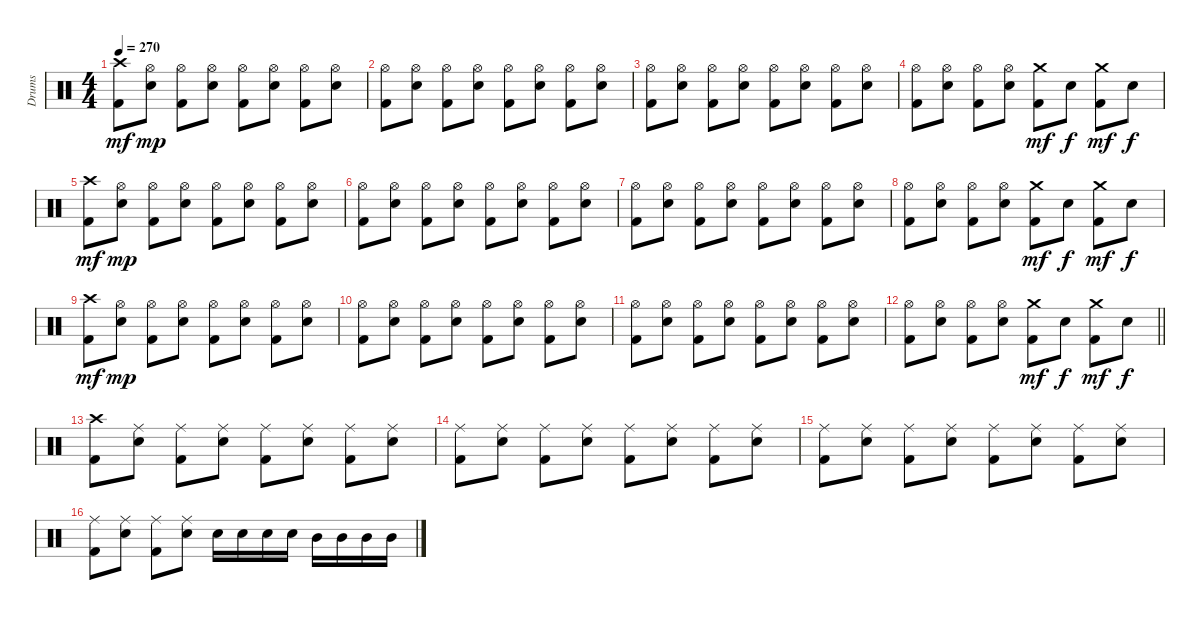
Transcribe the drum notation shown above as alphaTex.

\track ("Drums" "Drums") {instrument percussion}
\staff {score}
\articulation defaults
\ts (4 4)
\tempo 270
\clef neutral
\ks c
("Crash high (hit)" "Kick (hit) 2").8{dy mf} ("Hi-Hat (open)" "Snare (hit) 2").8{dy mp} ("Hi-Hat (open)" "Kick (hit) 2").8 ("Hi-Hat (open)" "Snare (hit) 2").8 ("Hi-Hat (open)" "Kick (hit) 2").8 ("Hi-Hat (open)" "Snare (hit) 2").8 ("Hi-Hat (open)" "Kick (hit) 2").8 ("Hi-Hat (open)" "Snare (hit) 2").8 |
("Hi-Hat (open)" "Kick (hit) 2").8 ("Hi-Hat (open)" "Snare (hit) 2").8 ("Hi-Hat (open)" "Kick (hit) 2").8 ("Hi-Hat (open)" "Snare (hit) 2").8 ("Hi-Hat (open)" "Kick (hit) 2").8 ("Hi-Hat (open)" "Snare (hit) 2").8 ("Hi-Hat (open)" "Kick (hit) 2").8 ("Hi-Hat (open)" "Snare (hit) 2").8 |
("Hi-Hat (open)" "Kick (hit) 2").8 ("Hi-Hat (open)" "Snare (hit) 2").8 ("Hi-Hat (open)" "Kick (hit) 2").8 ("Hi-Hat (open)" "Snare (hit) 2").8 ("Hi-Hat (open)" "Kick (hit) 2").8 ("Hi-Hat (open)" "Snare (hit) 2").8 ("Hi-Hat (open)" "Kick (hit) 2").8 ("Hi-Hat (open)" "Snare (hit) 2").8 |
("Hi-Hat (open)" "Kick (hit) 2").8 ("Hi-Hat (open)" "Snare (hit) 2").8 ("Hi-Hat (open)" "Kick (hit) 2").8 ("Hi-Hat (open)" "Snare (hit) 2").8 ("Crash medium (hit)" "Kick (hit) 2").8{dy mf} "Snare (hit) 2".8{dy f} ("Crash medium (hit)" "Kick (hit) 2").8{dy mf} "Snare (hit) 2".8{dy f} |
("Crash high (hit)" "Kick (hit) 2").8{dy mf} ("Hi-Hat (open)" "Snare (hit) 2").8{dy mp} ("Hi-Hat (open)" "Kick (hit) 2").8 ("Hi-Hat (open)" "Snare (hit) 2").8 ("Hi-Hat (open)" "Kick (hit) 2").8 ("Hi-Hat (open)" "Snare (hit) 2").8 ("Hi-Hat (open)" "Kick (hit) 2").8 ("Hi-Hat (open)" "Snare (hit) 2").8 |
("Hi-Hat (open)" "Kick (hit) 2").8 ("Hi-Hat (open)" "Snare (hit) 2").8 ("Hi-Hat (open)" "Kick (hit) 2").8 ("Hi-Hat (open)" "Snare (hit) 2").8 ("Hi-Hat (open)" "Kick (hit) 2").8 ("Hi-Hat (open)" "Snare (hit) 2").8 ("Hi-Hat (open)" "Kick (hit) 2").8 ("Hi-Hat (open)" "Snare (hit) 2").8 |
("Hi-Hat (open)" "Kick (hit) 2").8 ("Hi-Hat (open)" "Snare (hit) 2").8 ("Hi-Hat (open)" "Kick (hit) 2").8 ("Hi-Hat (open)" "Snare (hit) 2").8 ("Hi-Hat (open)" "Kick (hit) 2").8 ("Hi-Hat (open)" "Snare (hit) 2").8 ("Hi-Hat (open)" "Kick (hit) 2").8 ("Hi-Hat (open)" "Snare (hit) 2").8 |
("Hi-Hat (open)" "Kick (hit) 2").8 ("Hi-Hat (open)" "Snare (hit) 2").8 ("Hi-Hat (open)" "Kick (hit) 2").8 ("Hi-Hat (open)" "Snare (hit) 2").8 ("Crash medium (hit)" "Kick (hit) 2").8{dy mf} "Snare (hit) 2".8{dy f} ("Crash medium (hit)" "Kick (hit) 2").8{dy mf} "Snare (hit) 2".8{dy f} |
("Crash high (hit)" "Kick (hit) 2").8{dy mf} ("Hi-Hat (open)" "Snare (hit) 2").8{dy mp} ("Hi-Hat (open)" "Kick (hit) 2").8 ("Hi-Hat (open)" "Snare (hit) 2").8 ("Hi-Hat (open)" "Kick (hit) 2").8 ("Hi-Hat (open)" "Snare (hit) 2").8 ("Hi-Hat (open)" "Kick (hit) 2").8 ("Hi-Hat (open)" "Snare (hit) 2").8 |
("Hi-Hat (open)" "Kick (hit) 2").8 ("Hi-Hat (open)" "Snare (hit) 2").8 ("Hi-Hat (open)" "Kick (hit) 2").8 ("Hi-Hat (open)" "Snare (hit) 2").8 ("Hi-Hat (open)" "Kick (hit) 2").8 ("Hi-Hat (open)" "Snare (hit) 2").8 ("Hi-Hat (open)" "Kick (hit) 2").8 ("Hi-Hat (open)" "Snare (hit) 2").8 |
("Hi-Hat (open)" "Kick (hit) 2").8 ("Hi-Hat (open)" "Snare (hit) 2").8 ("Hi-Hat (open)" "Kick (hit) 2").8 ("Hi-Hat (open)" "Snare (hit) 2").8 ("Hi-Hat (open)" "Kick (hit) 2").8 ("Hi-Hat (open)" "Snare (hit) 2").8 ("Hi-Hat (open)" "Kick (hit) 2").8 ("Hi-Hat (open)" "Snare (hit) 2").8 |
\barLineRight lightlight
("Hi-Hat (open)" "Kick (hit) 2").8 ("Hi-Hat (open)" "Snare (hit) 2").8 ("Hi-Hat (open)" "Kick (hit) 2").8 ("Hi-Hat (open)" "Snare (hit) 2").8 ("Crash medium (hit)" "Kick (hit) 2").8{dy mf} "Snare (hit) 2".8{dy f} ("Crash medium (hit)" "Kick (hit) 2").8{dy mf} "Snare (hit) 2".8{dy f} |
\section ("" "")
("Crash high (hit)" "Kick (hit) 2").8 ("Ride (middle)" "Snare (hit) 2").8 ("Ride (middle)" "Kick (hit) 2").8 ("Ride (middle)" "Snare (hit) 2").8 ("Ride (middle)" "Kick (hit) 2").8 ("Ride (middle)" "Snare (hit) 2").8 ("Ride (middle)" "Kick (hit) 2").8 ("Ride (middle)" "Snare (hit) 2").8 |
("Ride (middle)" "Kick (hit) 2").8 ("Ride (middle)" "Snare (hit) 2").8 ("Ride (middle)" "Kick (hit) 2").8 ("Ride (middle)" "Snare (hit) 2").8 ("Ride (middle)" "Kick (hit) 2").8 ("Ride (middle)" "Snare (hit) 2").8 ("Ride (middle)" "Kick (hit) 2").8 ("Ride (middle)" "Snare (hit) 2").8 |
("Ride (middle)" "Kick (hit) 2").8 ("Ride (middle)" "Snare (hit) 2").8 ("Ride (middle)" "Kick (hit) 2").8 ("Ride (middle)" "Snare (hit) 2").8 ("Ride (middle)" "Kick (hit) 2").8 ("Ride (middle)" "Snare (hit) 2").8 ("Ride (middle)" "Kick (hit) 2").8 ("Ride (middle)" "Snare (hit) 2").8 |
("Ride (middle)" "Kick (hit) 2").8 ("Ride (middle)" "Snare (hit) 2").8 ("Ride (middle)" "Kick (hit) 2").8 ("Ride (middle)" "Snare (hit) 2").8 "Snare (hit) 2".16 "Snare (hit) 2".16 "Snare (hit) 2".16 "Snare (hit) 2".16 "Mid Tom (hit)".16 "Mid Tom (hit)".16 "Mid Tom (hit)".16 "Mid Tom (hit)".16
